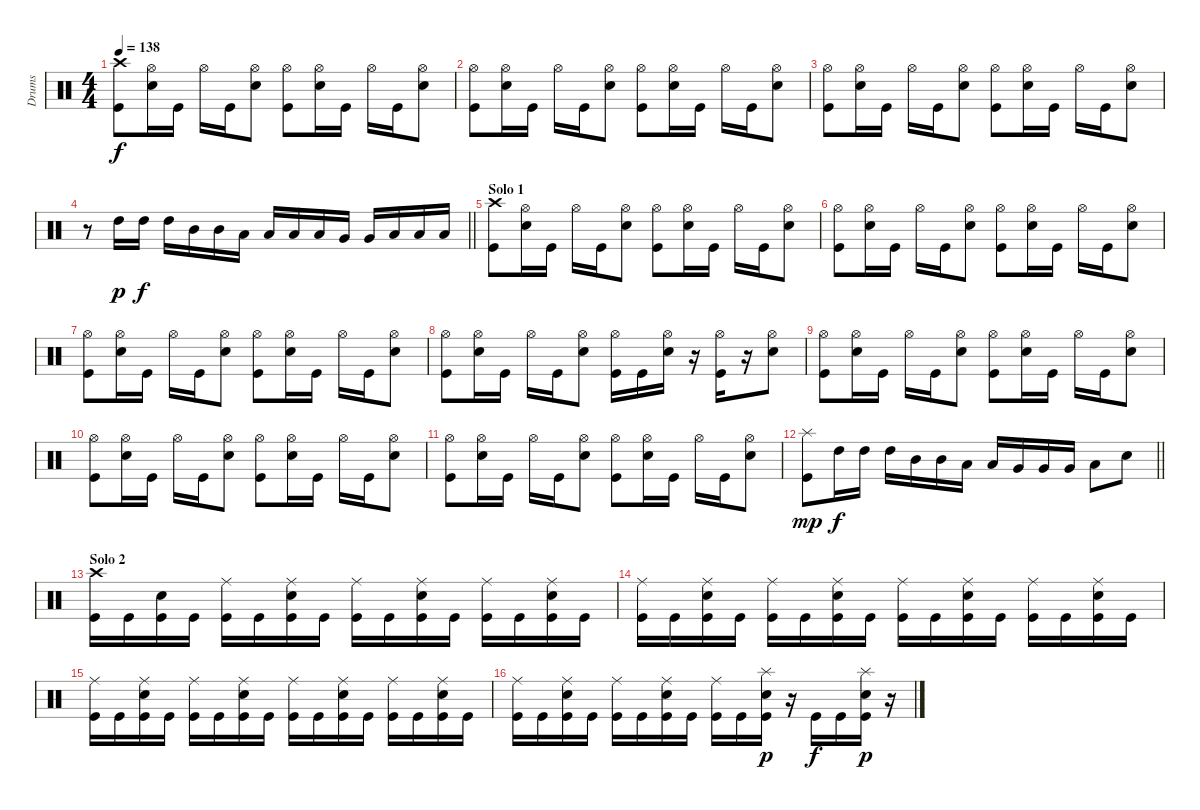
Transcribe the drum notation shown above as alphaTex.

\track ("Drums" "Drums") {instrument percussion}
\staff {score}
\articulation defaults
\ts (4 4)
\tempo 138
\clef neutral
\ks c
("Crash high (hit)" "Kick (hit)").8{dy f} ("Hi-Hat (open)" "Electric Snare (hit)").16 "Kick (hit)".16 "Hi-Hat (open)".16 "Kick (hit)".16 ("Hi-Hat (open)" "Electric Snare (hit)").8 ("Hi-Hat (open)" "Kick (hit)").8 ("Hi-Hat (open)" "Electric Snare (hit)").16 "Kick (hit)".16 "Hi-Hat (open)".16 "Kick (hit)".16 ("Hi-Hat (open)" "Electric Snare (hit)").8 |
("Hi-Hat (open)" "Kick (hit)").8 ("Hi-Hat (open)" "Electric Snare (hit)").16 "Kick (hit)".16 "Hi-Hat (open)".16 "Kick (hit)".16 ("Hi-Hat (open)" "Electric Snare (hit)").8 ("Hi-Hat (open)" "Kick (hit)").8 ("Hi-Hat (open)" "Electric Snare (hit)").16 "Kick (hit)".16 "Hi-Hat (open)".16 "Kick (hit)".16 ("Hi-Hat (open)" "Electric Snare (hit)").8 |
("Hi-Hat (open)" "Kick (hit)").8 ("Hi-Hat (open)" "Electric Snare (hit)").16 "Kick (hit)".16 "Hi-Hat (open)".16 "Kick (hit)".16 ("Hi-Hat (open)" "Electric Snare (hit)").8 ("Hi-Hat (open)" "Kick (hit)").8 ("Hi-Hat (open)" "Electric Snare (hit)").16 "Kick (hit)".16 "Hi-Hat (open)".16 "Kick (hit)".16 ("Hi-Hat (open)" "Electric Snare (hit)").8 |
\barLineRight lightlight
r.8 "High Tom (hit)".16{dy p} "High Tom (hit)".16{dy f} "High Tom (hit)".16 "Mid Tom (hit)".16 "Mid Tom (hit)".16 "Low Tom (hit)".16 "Low Tom (hit)".16 "Low Tom (hit)".16 "Low Tom (hit)".16 "Very Low Tom (hit)".16 "Very Low Tom (hit)".16 "Low Floor Tom (hit)".16 "Low Floor Tom (hit)".16 "Low Floor Tom (hit)".16 |
\section ("" "Solo 1")
("Crash high (hit)" "Kick (hit)").8 ("Hi-Hat (open)" "Electric Snare (hit)").16 "Kick (hit)".16 "Hi-Hat (open)".16 "Kick (hit)".16 ("Hi-Hat (open)" "Electric Snare (hit)").8 ("Hi-Hat (open)" "Kick (hit)").8 ("Hi-Hat (open)" "Electric Snare (hit)").16 "Kick (hit)".16 "Hi-Hat (open)".16 "Kick (hit)".16 ("Hi-Hat (open)" "Electric Snare (hit)").8 |
("Hi-Hat (open)" "Kick (hit)").8 ("Hi-Hat (open)" "Electric Snare (hit)").16 "Kick (hit)".16 "Hi-Hat (open)".16 "Kick (hit)".16 ("Hi-Hat (open)" "Electric Snare (hit)").8 ("Hi-Hat (open)" "Kick (hit)").8 ("Hi-Hat (open)" "Electric Snare (hit)").16 "Kick (hit)".16 "Hi-Hat (open)".16 "Kick (hit)".16 ("Hi-Hat (open)" "Electric Snare (hit)").8 |
("Hi-Hat (open)" "Kick (hit)").8 ("Hi-Hat (open)" "Electric Snare (hit)").16 "Kick (hit)".16 "Hi-Hat (open)".16 "Kick (hit)".16 ("Hi-Hat (open)" "Electric Snare (hit)").8 ("Hi-Hat (open)" "Kick (hit)").8 ("Hi-Hat (open)" "Electric Snare (hit)").16 "Kick (hit)".16 "Hi-Hat (open)".16 "Kick (hit)".16 ("Hi-Hat (open)" "Electric Snare (hit)").8 |
("Hi-Hat (open)" "Kick (hit)").8 ("Hi-Hat (open)" "Electric Snare (hit)").16 "Kick (hit)".16 "Hi-Hat (open)".16 "Kick (hit)".16 ("Hi-Hat (open)" "Electric Snare (hit)").8 ("Hi-Hat (open)" "Kick (hit)").16 "Kick (hit)".16 ("Hi-Hat (open)" "Electric Snare (hit)").16 r.16 ("Hi-Hat (open)" "Kick (hit)").16 r.16 ("Hi-Hat (open)" "Electric Snare (hit)").8 |
("Hi-Hat (open)" "Kick (hit)").8 ("Hi-Hat (open)" "Electric Snare (hit)").16 "Kick (hit)".16 "Hi-Hat (open)".16 "Kick (hit)".16 ("Hi-Hat (open)" "Electric Snare (hit)").8 ("Hi-Hat (open)" "Kick (hit)").8 ("Hi-Hat (open)" "Electric Snare (hit)").16 "Kick (hit)".16 "Hi-Hat (open)".16 "Kick (hit)".16 ("Hi-Hat (open)" "Electric Snare (hit)").8 |
("Hi-Hat (open)" "Kick (hit)").8 ("Hi-Hat (open)" "Electric Snare (hit)").16 "Kick (hit)".16 "Hi-Hat (open)".16 "Kick (hit)".16 ("Hi-Hat (open)" "Electric Snare (hit)").8 ("Hi-Hat (open)" "Kick (hit)").8 ("Hi-Hat (open)" "Electric Snare (hit)").16 "Kick (hit)".16 "Hi-Hat (open)".16 "Kick (hit)".16 ("Hi-Hat (open)" "Electric Snare (hit)").8 |
("Hi-Hat (open)" "Kick (hit)").8 ("Hi-Hat (open)" "Electric Snare (hit)").16 "Kick (hit)".16 "Hi-Hat (open)".16 "Kick (hit)".16 ("Hi-Hat (open)" "Electric Snare (hit)").8 ("Hi-Hat (open)" "Kick (hit)").8 ("Hi-Hat (open)" "Electric Snare (hit)").16 "Kick (hit)".16 "Hi-Hat (open)".16 "Kick (hit)".16 ("Hi-Hat (open)" "Electric Snare (hit)").8 |
\barLineRight lightlight
("Splash (hit)" "Kick (hit)").8{dy mp} "High Tom (hit)".16{dy f} "High Tom (hit)".16 "High Tom (hit)".16 "Mid Tom (hit)".16 "Mid Tom (hit)".16 "Low Tom (hit)".16 "Low Tom (hit)".16 "Very Low Tom (hit)".16 "Very Low Tom (hit)".16 "Very Low Tom (hit)".16 "Low Floor Tom (hit)".8 "Electric Snare (hit)".8 |
\section ("" "Solo 2")
("Crash high (hit)" "Kick (hit)").16 "Kick (hit)".16 ("Electric Snare (hit)" "Kick (hit)").16 "Kick (hit)".16 ("Ride (middle)" "Kick (hit)").16 "Kick (hit)".16 ("Ride (middle)" "Electric Snare (hit)" "Kick (hit)").16 "Kick (hit)".16 ("Ride (middle)" "Kick (hit)").16 "Kick (hit)".16 ("Ride (middle)" "Electric Snare (hit)" "Kick (hit)").16 "Kick (hit)".16 ("Ride (middle)" "Kick (hit)").16 "Kick (hit)".16 ("Ride (middle)" "Electric Snare (hit)" "Kick (hit)").16 "Kick (hit)".16 |
("Ride (middle)" "Kick (hit)").16 "Kick (hit)".16 ("Ride (middle)" "Electric Snare (hit)" "Kick (hit)").16 "Kick (hit)".16 ("Ride (middle)" "Kick (hit)").16 "Kick (hit)".16 ("Ride (middle)" "Electric Snare (hit)" "Kick (hit)").16 "Kick (hit)".16 ("Ride (middle)" "Kick (hit)").16 "Kick (hit)".16 ("Ride (middle)" "Electric Snare (hit)" "Kick (hit)").16 "Kick (hit)".16 ("Ride (middle)" "Kick (hit)").16 "Kick (hit)".16 ("Ride (middle)" "Electric Snare (hit)" "Kick (hit)").16 "Kick (hit)".16 |
("Ride (middle)" "Kick (hit)").16 "Kick (hit)".16 ("Ride (middle)" "Electric Snare (hit)" "Kick (hit)").16 "Kick (hit)".16 ("Ride (middle)" "Kick (hit)").16 "Kick (hit)".16 ("Ride (middle)" "Electric Snare (hit)" "Kick (hit)").16 "Kick (hit)".16 ("Ride (middle)" "Kick (hit)").16 "Kick (hit)".16 ("Ride (middle)" "Electric Snare (hit)" "Kick (hit)").16 "Kick (hit)".16 ("Ride (middle)" "Kick (hit)").16 "Kick (hit)".16 ("Ride (middle)" "Electric Snare (hit)" "Kick (hit)").16 "Kick (hit)".16 |
("Ride (middle)" "Kick (hit)").16 "Kick (hit)".16 ("Ride (middle)" "Electric Snare (hit)" "Kick (hit)").16 "Kick (hit)".16 ("Ride (middle)" "Kick (hit)").16 "Kick (hit)".16 ("Ride (middle)" "Electric Snare (hit)" "Kick (hit)").16 "Kick (hit)".16 ("Ride (middle)" "Kick (hit)").16 "Kick (hit)".16 ("Splash (hit)" "Electric Snare (hit)" "Kick (hit)").16{dy p} r.16 "Kick (hit)".16{dy f} "Kick (hit)".16 ("Splash (hit)" "Electric Snare (hit)" "Kick (hit)").16{dy p} r.16
